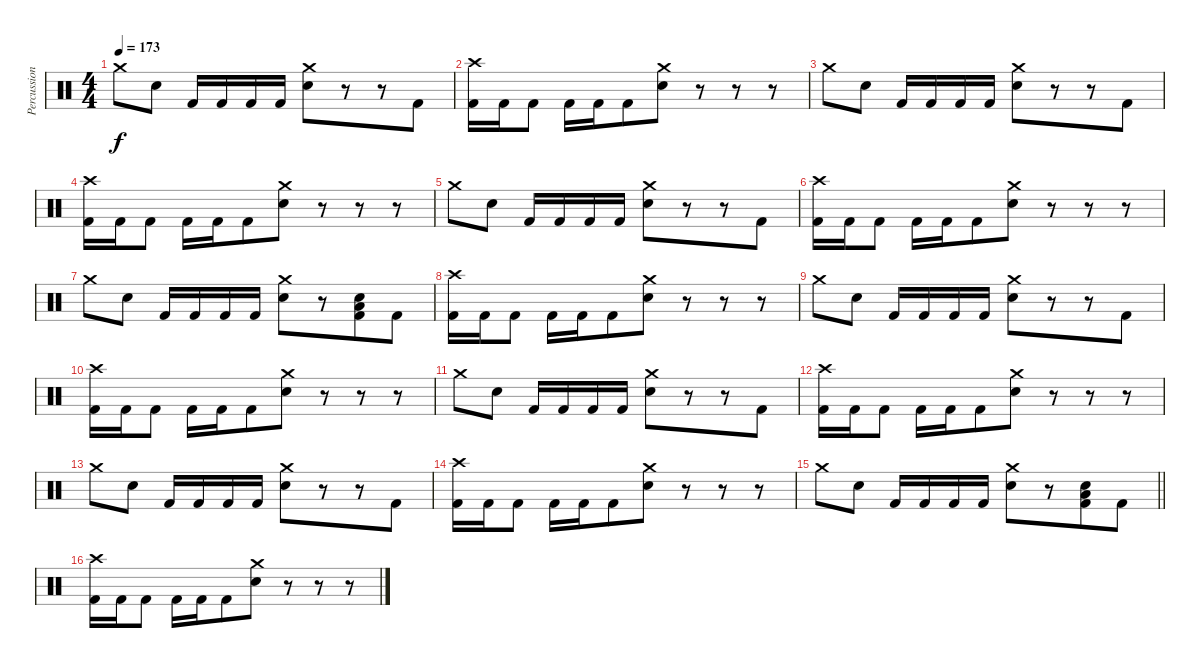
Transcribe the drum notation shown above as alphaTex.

\track ("Percussion" "Percussion") {instrument percussion}
\staff {score}
\articulation defaults
\ts (4 4)
\tempo 173
\clef neutral
\ks c "Crash medium (hit)".8{dy f} "Electric Snare (hit)".8 "Kick (hit) 2".16 "Kick (hit) 2".16 "Kick (hit) 2".16 "Kick (hit) 2".16
("Crash medium (hit)" "Electric Snare (hit)").8{beam merge} r.8{beam merge} r.8{beam merge} "Kick (hit) 2".8 |
("Crash high (hit)" "Kick (hit) 2").16 "Kick (hit) 2".16 "Kick (hit) 2".8 "Kick (hit) 2".16 "Kick (hit) 2".16 "Kick (hit) 2".8{beam merge} ("Crash medium (hit)" "Electric Snare (hit)").8 r.8 r.8 r.8 |
"Crash medium (hit)".8 "Electric Snare (hit)".8 "Kick (hit) 2".16 "Kick (hit) 2".16 "Kick (hit) 2".16 "Kick (hit) 2".16 ("Crash medium (hit)" "Electric Snare (hit)").8{beam merge} r.8{beam merge} r.8{beam merge} "Kick (hit) 2".8 |
("Crash high (hit)" "Kick (hit) 2").16 "Kick (hit) 2".16 "Kick (hit) 2".8 "Kick (hit) 2".16 "Kick (hit) 2".16 "Kick (hit) 2".8{beam merge} ("Crash medium (hit)" "Electric Snare (hit)").8 r.8 r.8 r.8 |
"Crash medium (hit)".8 "Electric Snare (hit)".8 "Kick (hit) 2".16 "Kick (hit) 2".16 "Kick (hit) 2".16 "Kick (hit) 2".16 ("Crash medium (hit)" "Electric Snare (hit)").8{beam merge} r.8{beam merge} r.8{beam merge} "Kick (hit) 2".8 |
("Crash high (hit)" "Kick (hit) 2").16 "Kick (hit) 2".16 "Kick (hit) 2".8 "Kick (hit) 2".16 "Kick (hit) 2".16 "Kick (hit) 2".8{beam merge} ("Crash medium (hit)" "Electric Snare (hit)").8 r.8 r.8 r.8 |
"Crash medium (hit)".8 "Electric Snare (hit)".8 "Kick (hit) 2".16 "Kick (hit) 2".16 "Kick (hit) 2".16 "Kick (hit) 2".16 ("Crash medium (hit)" "Electric Snare (hit)").8{beam merge} r.8{beam merge} ("Electric Snare (hit)" "Low Floor Tom (hit)" "Kick (hit) 2").8{beam merge} "Kick (hit) 2".8 |
("Crash high (hit)" "Kick (hit) 2").16 "Kick (hit) 2".16 "Kick (hit) 2".8 "Kick (hit) 2".16 "Kick (hit) 2".16 "Kick (hit) 2".8{beam merge} ("Crash medium (hit)" "Electric Snare (hit)").8 r.8 r.8 r.8 |
"Crash medium (hit)".8 "Electric Snare (hit)".8 "Kick (hit) 2".16 "Kick (hit) 2".16 "Kick (hit) 2".16 "Kick (hit) 2".16 ("Crash medium (hit)" "Electric Snare (hit)").8{beam merge} r.8{beam merge} r.8{beam merge} "Kick (hit) 2".8 |
("Crash high (hit)" "Kick (hit) 2").16 "Kick (hit) 2".16 "Kick (hit) 2".8 "Kick (hit) 2".16 "Kick (hit) 2".16 "Kick (hit) 2".8{beam merge} ("Crash medium (hit)" "Electric Snare (hit)").8 r.8 r.8 r.8 |
"Crash medium (hit)".8 "Electric Snare (hit)".8 "Kick (hit) 2".16 "Kick (hit) 2".16 "Kick (hit) 2".16 "Kick (hit) 2".16 ("Crash medium (hit)" "Electric Snare (hit)").8{beam merge} r.8{beam merge} r.8{beam merge} "Kick (hit) 2".8 |
("Crash high (hit)" "Kick (hit) 2").16 "Kick (hit) 2".16 "Kick (hit) 2".8 "Kick (hit) 2".16 "Kick (hit) 2".16 "Kick (hit) 2".8{beam merge} ("Crash medium (hit)" "Electric Snare (hit)").8 r.8 r.8 r.8 |
"Crash medium (hit)".8 "Electric Snare (hit)".8 "Kick (hit) 2".16 "Kick (hit) 2".16 "Kick (hit) 2".16 "Kick (hit) 2".16 ("Crash medium (hit)" "Electric Snare (hit)").8{beam merge} r.8{beam merge} r.8{beam merge} "Kick (hit) 2".8 |
("Crash high (hit)" "Kick (hit) 2").16 "Kick (hit) 2".16 "Kick (hit) 2".8 "Kick (hit) 2".16 "Kick (hit) 2".16 "Kick (hit) 2".8{beam merge} ("Crash medium (hit)" "Electric Snare (hit)").8 r.8 r.8 r.8 |
\barLineRight lightlight "Crash medium (hit)".8 "Electric Snare (hit)".8 "Kick (hit) 2".16 "Kick (hit) 2".16 "Kick (hit) 2".16 "Kick (hit) 2".16
("Crash medium (hit)" "Electric Snare (hit)").8{beam merge} r.8{beam merge} ("Electric Snare (hit)" "Low Floor Tom (hit)" "Kick (hit) 2").8{beam merge} "Kick (hit) 2".8 |
\section ("" "")
("Crash high (hit)" "Kick (hit) 2").16 "Kick (hit) 2".16 "Kick (hit) 2".8 "Kick (hit) 2".16 "Kick (hit) 2".16 "Kick (hit) 2".8{beam merge} ("Crash medium (hit)" "Electric Snare (hit)").8 r.8 r.8 r.8
